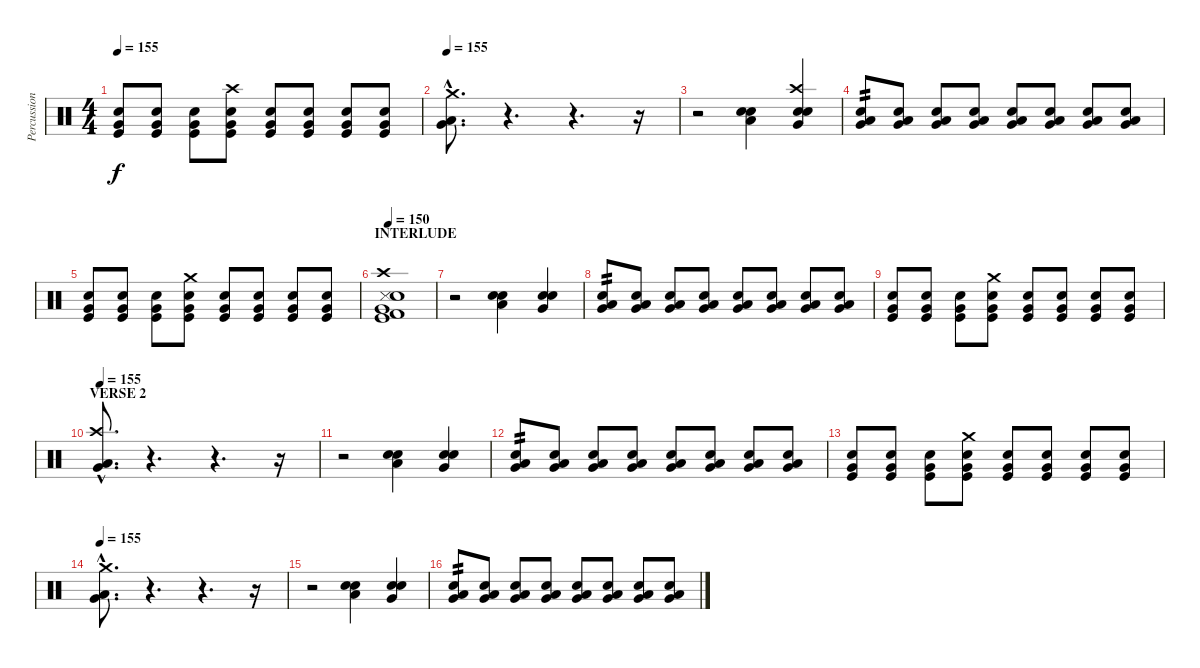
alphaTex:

\track ("Percussion-group" "Percussion") {instrument percussion}
\staff {score}
\articulation defaults
\ts (4 4)
\tempo 155
\clef neutral
\ks c
("Very Low Tom (hit)" "Kick (hit)" "Electric Snare (hit)").8{dy f} ("Very Low Tom (hit)" "Kick (hit)" "Electric Snare (hit)").8 ("Very Low Tom (hit)" "Kick (hit)" "Electric Snare (hit)").8 ("Very Low Tom (hit)" "Kick (hit)" "Electric Snare (hit)" "Crash high (hit)").8 ("Very Low Tom (hit)" "Kick (hit)" "Electric Snare (hit)").8 ("Very Low Tom (hit)" "Kick (hit)" "Electric Snare (hit)").8 ("Very Low Tom (hit)" "Kick (hit)" "Electric Snare (hit)").8 ("Very Low Tom (hit)" "Kick (hit)" "Electric Snare (hit)").8 |
\tempo 155
("Very Low Tom (hit)"{hac} "Low Tom (hit)"{hac} "Crash medium (hit)"{hac}).8{d} r.4{d} r.4{d} r.16 |
r.2 ("Low Tom (hit)" "Electric Snare (hit)" "Snare (hit) 2").4 ("Very Low Tom (hit)" "Electric Snare (hit)" "Snare (hit) 2" "Crash high (hit)").4 |
("Low Tom (hit)" "Very Low Tom (hit)" "Electric Snare (hit)").8{tp 2} ("Low Tom (hit)" "Very Low Tom (hit)" "Electric Snare (hit)").8 ("Low Tom (hit)" "Very Low Tom (hit)" "Electric Snare (hit)").8 ("Low Tom (hit)" "Very Low Tom (hit)" "Electric Snare (hit)").8 ("Low Tom (hit)" "Very Low Tom (hit)" "Electric Snare (hit)").8 ("Low Tom (hit)" "Very Low Tom (hit)" "Electric Snare (hit)").8 ("Low Tom (hit)" "Very Low Tom (hit)" "Electric Snare (hit)").8 ("Low Tom (hit)" "Very Low Tom (hit)" "Electric Snare (hit)").8 |
("Very Low Tom (hit)" "Kick (hit)" "Electric Snare (hit)").8 ("Very Low Tom (hit)" "Kick (hit)" "Electric Snare (hit)").8 ("Very Low Tom (hit)" "Kick (hit)" "Electric Snare (hit)").8 ("Very Low Tom (hit)" "Kick (hit)" "Electric Snare (hit)" "Crash medium (hit)").8 ("Very Low Tom (hit)" "Kick (hit)" "Electric Snare (hit)").8 ("Very Low Tom (hit)" "Kick (hit)" "Electric Snare (hit)").8 ("Very Low Tom (hit)" "Kick (hit)" "Electric Snare (hit)").8 ("Very Low Tom (hit)" "Kick (hit)" "Electric Snare (hit)").8 |
\section ("" "INTERLUDE")
\tempo 150
("Very Low Tom (hit)" "Crash high (hit)" "Kick (hit)" "Metronome (hit)" "Kick (hit) 2" "Electric Snare (hit)").1 |
r.2 ("Low Tom (hit)" "Electric Snare (hit)" "Snare (hit) 2").4 ("Very Low Tom (hit)" "Electric Snare (hit)" "Snare (hit) 2").4 |
("Low Tom (hit)" "Very Low Tom (hit)" "Electric Snare (hit)").8{tp 2} ("Low Tom (hit)" "Very Low Tom (hit)" "Electric Snare (hit)").8 ("Low Tom (hit)" "Very Low Tom (hit)" "Electric Snare (hit)").8 ("Low Tom (hit)" "Very Low Tom (hit)" "Electric Snare (hit)").8 ("Low Tom (hit)" "Very Low Tom (hit)" "Electric Snare (hit)").8 ("Low Tom (hit)" "Very Low Tom (hit)" "Electric Snare (hit)").8 ("Low Tom (hit)" "Very Low Tom (hit)" "Electric Snare (hit)").8 ("Low Tom (hit)" "Very Low Tom (hit)" "Electric Snare (hit)").8 |
("Very Low Tom (hit)" "Kick (hit)" "Electric Snare (hit)").8 ("Very Low Tom (hit)" "Kick (hit)" "Electric Snare (hit)").8 ("Very Low Tom (hit)" "Kick (hit)" "Electric Snare (hit)").8 ("Very Low Tom (hit)" "Kick (hit)" "Electric Snare (hit)" "Crash medium (hit)").8 ("Very Low Tom (hit)" "Kick (hit)" "Electric Snare (hit)").8 ("Very Low Tom (hit)" "Kick (hit)" "Electric Snare (hit)").8 ("Very Low Tom (hit)" "Kick (hit)" "Electric Snare (hit)").8 ("Very Low Tom (hit)" "Kick (hit)" "Electric Snare (hit)").8 |
\section ("" "VERSE 2")
\tempo 155
("Very Low Tom (hit)"{hac} "Low Tom (hit)"{hac} "Crash high (hit)"{hac}).8{d} r.4{d} r.4{d} r.16 |
r.2 ("Low Tom (hit)" "Electric Snare (hit)" "Snare (hit) 2").4 ("Very Low Tom (hit)" "Electric Snare (hit)" "Snare (hit) 2").4 |
("Low Tom (hit)" "Very Low Tom (hit)" "Electric Snare (hit)").8{tp 2} ("Low Tom (hit)" "Very Low Tom (hit)" "Electric Snare (hit)").8 ("Low Tom (hit)" "Very Low Tom (hit)" "Electric Snare (hit)").8 ("Low Tom (hit)" "Very Low Tom (hit)" "Electric Snare (hit)").8 ("Low Tom (hit)" "Very Low Tom (hit)" "Electric Snare (hit)").8 ("Low Tom (hit)" "Very Low Tom (hit)" "Electric Snare (hit)").8 ("Low Tom (hit)" "Very Low Tom (hit)" "Electric Snare (hit)").8 ("Low Tom (hit)" "Very Low Tom (hit)" "Electric Snare (hit)").8 |
("Very Low Tom (hit)" "Kick (hit)" "Electric Snare (hit)").8 ("Very Low Tom (hit)" "Kick (hit)" "Electric Snare (hit)").8 ("Very Low Tom (hit)" "Kick (hit)" "Electric Snare (hit)").8 ("Very Low Tom (hit)" "Kick (hit)" "Electric Snare (hit)" "Crash medium (hit)").8 ("Very Low Tom (hit)" "Kick (hit)" "Electric Snare (hit)").8 ("Very Low Tom (hit)" "Kick (hit)" "Electric Snare (hit)").8 ("Very Low Tom (hit)" "Kick (hit)" "Electric Snare (hit)").8 ("Very Low Tom (hit)" "Kick (hit)" "Electric Snare (hit)").8 |
\tempo 155
("Very Low Tom (hit)"{hac} "Low Tom (hit)"{hac} "Crash medium (hit)"{hac}).8{d} r.4{d} r.4{d} r.16 |
r.2 ("Low Tom (hit)" "Electric Snare (hit)" "Snare (hit) 2").4 ("Very Low Tom (hit)" "Electric Snare (hit)" "Snare (hit) 2").4 |
("Low Tom (hit)" "Very Low Tom (hit)" "Electric Snare (hit)").8{tp 2} ("Low Tom (hit)" "Very Low Tom (hit)" "Electric Snare (hit)").8 ("Low Tom (hit)" "Very Low Tom (hit)" "Electric Snare (hit)").8 ("Low Tom (hit)" "Very Low Tom (hit)" "Electric Snare (hit)").8 ("Low Tom (hit)" "Very Low Tom (hit)" "Electric Snare (hit)").8 ("Low Tom (hit)" "Very Low Tom (hit)" "Electric Snare (hit)").8 ("Low Tom (hit)" "Very Low Tom (hit)" "Electric Snare (hit)").8 ("Low Tom (hit)" "Very Low Tom (hit)" "Electric Snare (hit)").8
